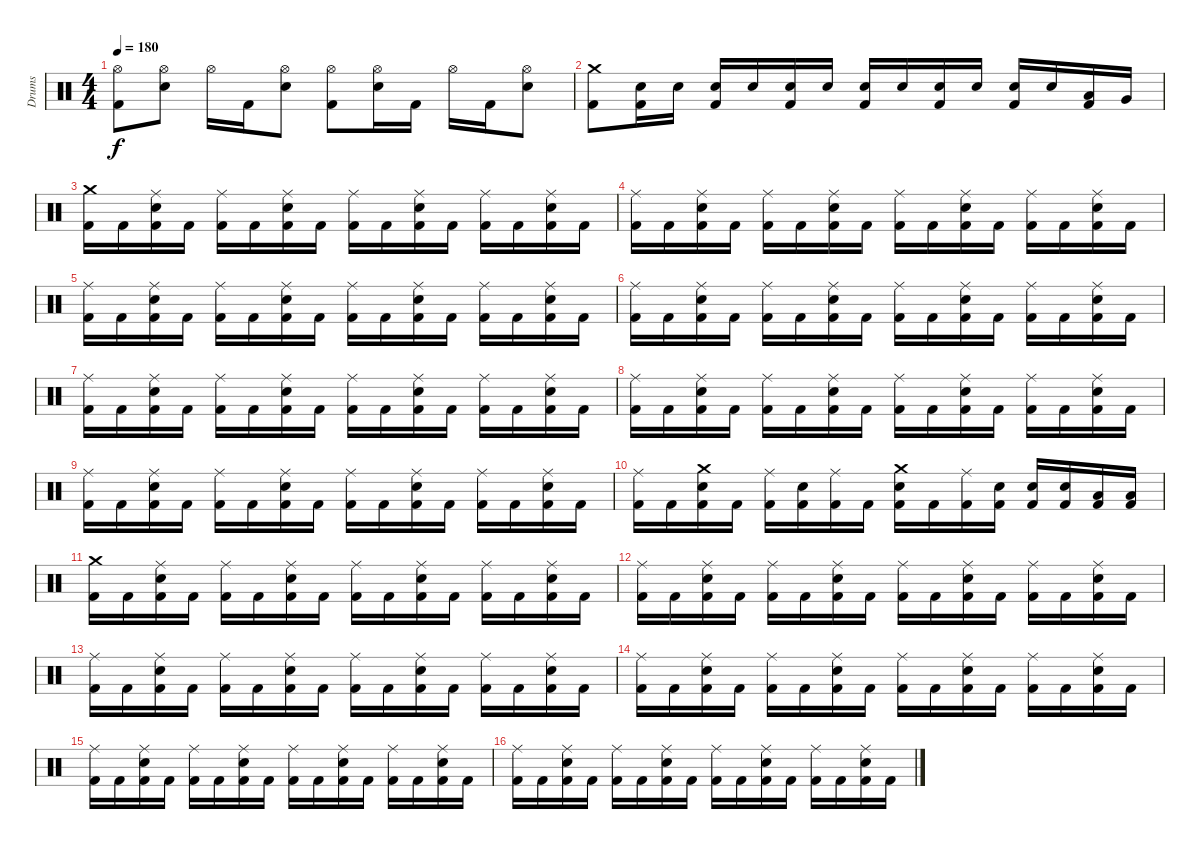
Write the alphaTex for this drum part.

\track ("Drums" "Drums") {instrument percussion}
\staff {score}
\articulation defaults
\ts (4 4)
\tempo 180
\clef neutral
\ks c
("Hi-Hat (open)" "Kick (hit) 2").8{dy f} ("Hi-Hat (open)" "Snare (hit) 2").8 "Hi-Hat (open)".16 "Kick (hit) 2".16 ("Hi-Hat (open)" "Snare (hit) 2").8 ("Hi-Hat (open)" "Kick (hit) 2").8 ("Hi-Hat (open)" "Snare (hit) 2").16 "Kick (hit) 2".16 "Hi-Hat (open)".16 "Kick (hit) 2".16 ("Hi-Hat (open)" "Snare (hit) 2").8 |
("Crash medium (hit)" "Kick (hit) 2").8 ("Snare (hit) 2" "Kick (hit) 2").16 "Snare (hit) 2".16 ("Snare (hit) 2" "Kick (hit) 2").16 "Snare (hit) 2".16 ("Snare (hit) 2" "Kick (hit) 2").16 "Snare (hit) 2".16 ("Snare (hit) 2" "Kick (hit) 2").16 "Snare (hit) 2".16 ("Snare (hit) 2" "Kick (hit) 2").16 "Snare (hit) 2".16 ("Snare (hit) 2" "Kick (hit) 2").16 "Snare (hit) 2".16 ("Low Tom (hit)" "Kick (hit) 2").16 "Very Low Tom (hit)".16 |
("Crash medium (hit)" "Kick (hit) 2").16 "Kick (hit) 2".16 ("Ride (middle)" "Snare (hit) 2" "Kick (hit) 2").16 "Kick (hit) 2".16 ("Ride (middle)" "Kick (hit) 2").16 "Kick (hit) 2".16 ("Ride (middle)" "Snare (hit) 2" "Kick (hit) 2").16 "Kick (hit) 2".16 ("Ride (middle)" "Kick (hit) 2").16 "Kick (hit) 2".16 ("Ride (middle)" "Snare (hit) 2" "Kick (hit) 2").16 "Kick (hit) 2".16 ("Ride (middle)" "Kick (hit) 2").16 "Kick (hit) 2".16 ("Ride (middle)" "Snare (hit) 2" "Kick (hit) 2").16 "Kick (hit) 2".16 |
("Ride (middle)" "Kick (hit) 2").16 "Kick (hit) 2".16 ("Ride (middle)" "Snare (hit) 2" "Kick (hit) 2").16 "Kick (hit) 2".16 ("Ride (middle)" "Kick (hit) 2").16 "Kick (hit) 2".16 ("Ride (middle)" "Snare (hit) 2" "Kick (hit) 2").16 "Kick (hit) 2".16 ("Ride (middle)" "Kick (hit) 2").16 "Kick (hit) 2".16 ("Ride (middle)" "Snare (hit) 2" "Kick (hit) 2").16 "Kick (hit) 2".16 ("Ride (middle)" "Kick (hit) 2").16 "Kick (hit) 2".16 ("Ride (middle)" "Snare (hit) 2" "Kick (hit) 2").16 "Kick (hit) 2".16 |
("Ride (middle)" "Kick (hit) 2").16 "Kick (hit) 2".16 ("Ride (middle)" "Snare (hit) 2" "Kick (hit) 2").16 "Kick (hit) 2".16 ("Ride (middle)" "Kick (hit) 2").16 "Kick (hit) 2".16 ("Ride (middle)" "Snare (hit) 2" "Kick (hit) 2").16 "Kick (hit) 2".16 ("Ride (middle)" "Kick (hit) 2").16 "Kick (hit) 2".16 ("Ride (middle)" "Snare (hit) 2" "Kick (hit) 2").16 "Kick (hit) 2".16 ("Ride (middle)" "Kick (hit) 2").16 "Kick (hit) 2".16 ("Ride (middle)" "Snare (hit) 2" "Kick (hit) 2").16 "Kick (hit) 2".16 |
("Ride (middle)" "Kick (hit) 2").16 "Kick (hit) 2".16 ("Ride (middle)" "Snare (hit) 2" "Kick (hit) 2").16 "Kick (hit) 2".16 ("Ride (middle)" "Kick (hit) 2").16 "Kick (hit) 2".16 ("Ride (middle)" "Snare (hit) 2" "Kick (hit) 2").16 "Kick (hit) 2".16 ("Ride (middle)" "Kick (hit) 2").16 "Kick (hit) 2".16 ("Ride (middle)" "Snare (hit) 2" "Kick (hit) 2").16 "Kick (hit) 2".16 ("Ride (middle)" "Kick (hit) 2").16 "Kick (hit) 2".16 ("Ride (middle)" "Snare (hit) 2" "Kick (hit) 2").16 "Kick (hit) 2".16 |
("Ride (middle)" "Kick (hit) 2").16 "Kick (hit) 2".16 ("Ride (middle)" "Snare (hit) 2" "Kick (hit) 2").16 "Kick (hit) 2".16 ("Ride (middle)" "Kick (hit) 2").16 "Kick (hit) 2".16 ("Ride (middle)" "Snare (hit) 2" "Kick (hit) 2").16 "Kick (hit) 2".16 ("Ride (middle)" "Kick (hit) 2").16 "Kick (hit) 2".16 ("Ride (middle)" "Snare (hit) 2" "Kick (hit) 2").16 "Kick (hit) 2".16 ("Ride (middle)" "Kick (hit) 2").16 "Kick (hit) 2".16 ("Ride (middle)" "Snare (hit) 2" "Kick (hit) 2").16 "Kick (hit) 2".16 |
("Ride (middle)" "Kick (hit) 2").16 "Kick (hit) 2".16 ("Ride (middle)" "Snare (hit) 2" "Kick (hit) 2").16 "Kick (hit) 2".16 ("Ride (middle)" "Kick (hit) 2").16 "Kick (hit) 2".16 ("Ride (middle)" "Snare (hit) 2" "Kick (hit) 2").16 "Kick (hit) 2".16 ("Ride (middle)" "Kick (hit) 2").16 "Kick (hit) 2".16 ("Ride (middle)" "Snare (hit) 2" "Kick (hit) 2").16 "Kick (hit) 2".16 ("Ride (middle)" "Kick (hit) 2").16 "Kick (hit) 2".16 ("Ride (middle)" "Snare (hit) 2" "Kick (hit) 2").16 "Kick (hit) 2".16 |
("Ride (middle)" "Kick (hit) 2").16 "Kick (hit) 2".16 ("Ride (middle)" "Snare (hit) 2" "Kick (hit) 2").16 "Kick (hit) 2".16 ("Ride (middle)" "Kick (hit) 2").16 "Kick (hit) 2".16 ("Ride (middle)" "Snare (hit) 2" "Kick (hit) 2").16 "Kick (hit) 2".16 ("Ride (middle)" "Kick (hit) 2").16 "Kick (hit) 2".16 ("Ride (middle)" "Snare (hit) 2" "Kick (hit) 2").16 "Kick (hit) 2".16 ("Ride (middle)" "Kick (hit) 2").16 "Kick (hit) 2".16 ("Ride (middle)" "Snare (hit) 2" "Kick (hit) 2").16 "Kick (hit) 2".16 |
("Ride (middle)" "Kick (hit) 2").16 "Kick (hit) 2".16 ("Crash medium (hit)" "Snare (hit) 2" "Kick (hit) 2").16 "Kick (hit) 2".16 ("Ride (middle)" "Kick (hit) 2").16 ("Snare (hit) 2" "Kick (hit) 2").16 ("Ride (middle)" "Kick (hit) 2").16 "Kick (hit) 2".16 ("Crash medium (hit)" "Snare (hit) 2" "Kick (hit) 2").16 "Kick (hit) 2".16 ("Ride (middle)" "Kick (hit) 2").16 ("Snare (hit) 2" "Kick (hit) 2").16 ("Snare (hit) 2" "Kick (hit) 2").16 ("Snare (hit) 2" "Kick (hit) 2").16 ("Low Tom (hit)" "Kick (hit) 2").16 ("Low Tom (hit)" "Kick (hit) 2").16 |
("Crash medium (hit)" "Kick (hit) 2").16 "Kick (hit) 2".16 ("Ride (middle)" "Snare (hit) 2" "Kick (hit) 2").16 "Kick (hit) 2".16 ("Ride (middle)" "Kick (hit) 2").16 "Kick (hit) 2".16 ("Ride (middle)" "Snare (hit) 2" "Kick (hit) 2").16 "Kick (hit) 2".16 ("Ride (middle)" "Kick (hit) 2").16 "Kick (hit) 2".16 ("Ride (middle)" "Snare (hit) 2" "Kick (hit) 2").16 "Kick (hit) 2".16 ("Ride (middle)" "Kick (hit) 2").16 "Kick (hit) 2".16 ("Ride (middle)" "Snare (hit) 2" "Kick (hit) 2").16 "Kick (hit) 2".16 |
("Ride (middle)" "Kick (hit) 2").16 "Kick (hit) 2".16 ("Ride (middle)" "Snare (hit) 2" "Kick (hit) 2").16 "Kick (hit) 2".16 ("Ride (middle)" "Kick (hit) 2").16 "Kick (hit) 2".16 ("Ride (middle)" "Snare (hit) 2" "Kick (hit) 2").16 "Kick (hit) 2".16 ("Ride (middle)" "Kick (hit) 2").16 "Kick (hit) 2".16 ("Ride (middle)" "Snare (hit) 2" "Kick (hit) 2").16 "Kick (hit) 2".16 ("Ride (middle)" "Kick (hit) 2").16 "Kick (hit) 2".16 ("Ride (middle)" "Snare (hit) 2" "Kick (hit) 2").16 "Kick (hit) 2".16 |
("Ride (middle)" "Kick (hit) 2").16 "Kick (hit) 2".16 ("Ride (middle)" "Snare (hit) 2" "Kick (hit) 2").16 "Kick (hit) 2".16 ("Ride (middle)" "Kick (hit) 2").16 "Kick (hit) 2".16 ("Ride (middle)" "Snare (hit) 2" "Kick (hit) 2").16 "Kick (hit) 2".16 ("Ride (middle)" "Kick (hit) 2").16 "Kick (hit) 2".16 ("Ride (middle)" "Snare (hit) 2" "Kick (hit) 2").16 "Kick (hit) 2".16 ("Ride (middle)" "Kick (hit) 2").16 "Kick (hit) 2".16 ("Ride (middle)" "Snare (hit) 2" "Kick (hit) 2").16 "Kick (hit) 2".16 |
("Ride (middle)" "Kick (hit) 2").16 "Kick (hit) 2".16 ("Ride (middle)" "Snare (hit) 2" "Kick (hit) 2").16 "Kick (hit) 2".16 ("Ride (middle)" "Kick (hit) 2").16 "Kick (hit) 2".16 ("Ride (middle)" "Snare (hit) 2" "Kick (hit) 2").16 "Kick (hit) 2".16 ("Ride (middle)" "Kick (hit) 2").16 "Kick (hit) 2".16 ("Ride (middle)" "Snare (hit) 2" "Kick (hit) 2").16 "Kick (hit) 2".16 ("Ride (middle)" "Kick (hit) 2").16 "Kick (hit) 2".16 ("Ride (middle)" "Snare (hit) 2" "Kick (hit) 2").16 "Kick (hit) 2".16 |
("Ride (middle)" "Kick (hit) 2").16 "Kick (hit) 2".16 ("Ride (middle)" "Snare (hit) 2" "Kick (hit) 2").16 "Kick (hit) 2".16 ("Ride (middle)" "Kick (hit) 2").16 "Kick (hit) 2".16 ("Ride (middle)" "Snare (hit) 2" "Kick (hit) 2").16 "Kick (hit) 2".16 ("Ride (middle)" "Kick (hit) 2").16 "Kick (hit) 2".16 ("Ride (middle)" "Snare (hit) 2" "Kick (hit) 2").16 "Kick (hit) 2".16 ("Ride (middle)" "Kick (hit) 2").16 "Kick (hit) 2".16 ("Ride (middle)" "Snare (hit) 2" "Kick (hit) 2").16 "Kick (hit) 2".16 |
("Ride (middle)" "Kick (hit) 2").16 "Kick (hit) 2".16 ("Ride (middle)" "Snare (hit) 2" "Kick (hit) 2").16 "Kick (hit) 2".16 ("Ride (middle)" "Kick (hit) 2").16 "Kick (hit) 2".16 ("Ride (middle)" "Snare (hit) 2" "Kick (hit) 2").16 "Kick (hit) 2".16 ("Ride (middle)" "Kick (hit) 2").16 "Kick (hit) 2".16 ("Ride (middle)" "Snare (hit) 2" "Kick (hit) 2").16 "Kick (hit) 2".16 ("Ride (middle)" "Kick (hit) 2").16 "Kick (hit) 2".16 ("Ride (middle)" "Snare (hit) 2" "Kick (hit) 2").16 "Kick (hit) 2".16
